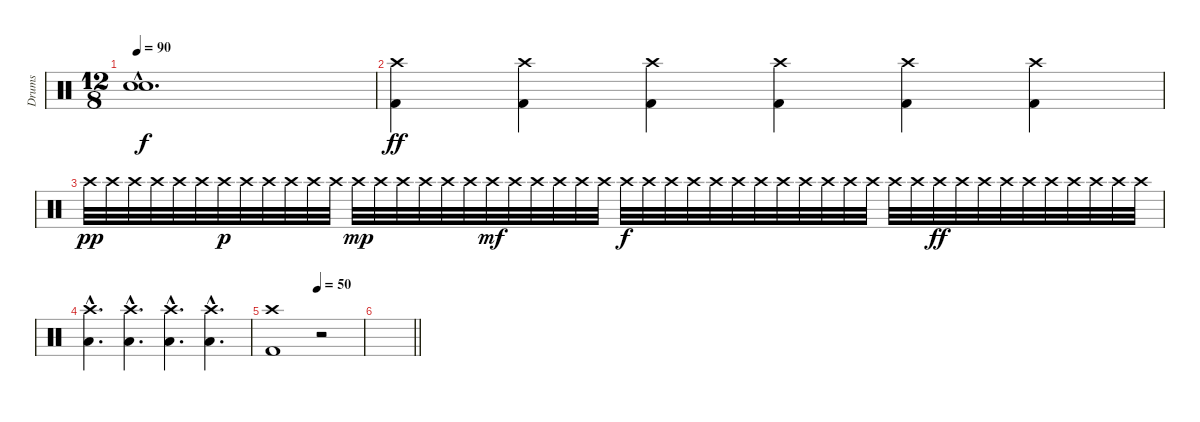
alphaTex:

\track ("Drums" "Drums") {instrument percussion}
\staff {score}
\articulation defaults
\ts (12 8)
\tempo 90
\clef neutral
\ks c
("Snare (hit)"{hac t} "Snare (hit)"{hac t}).1{d dy f} |
("Kick (hit) 2" "Crash high (hit)").4{dy ff} ("Kick (hit) 2" "Crash high (hit)").4 ("Kick (hit) 2" "Crash high (hit)").4 ("Kick (hit) 2" "Crash high (hit)").4 ("Kick (hit) 2" "Crash high (hit)").4 ("Kick (hit) 2" "Crash high (hit)").4 |
"Crash high (hit)".32{dy pp volume 16} "Crash high (hit)".32{volume 16} "Crash high (hit)".32{volume 16} "Crash high (hit)".32{volume 16} "Crash high (hit)".32{volume 16} "Crash high (hit)".32{volume 16} "Crash high (hit)".32{dy p volume 16} "Crash high (hit)".32{volume 16} "Crash high (hit)".32{volume 16} "Crash high (hit)".32{volume 16} "Crash high (hit)".32{volume 16} "Crash high (hit)".32{volume 16} "Crash high (hit)".32{dy mp volume 16} "Crash high (hit)".32{volume 16} "Crash high (hit)".32{volume 16} "Crash high (hit)".32{volume 16} "Crash high (hit)".32{volume 16} "Crash high (hit)".32{volume 16} "Crash high (hit)".32{dy mf volume 16} "Crash high (hit)".32{volume 16} "Crash high (hit)".32{volume 16} "Crash high (hit)".32{volume 16} "Crash high (hit)".32{volume 16} "Crash high (hit)".32{volume 16} "Crash high (hit)".32{dy f volume 16} "Crash high (hit)".32{volume 16} "Crash high (hit)".32{volume 16} "Crash high (hit)".32{volume 16} "Crash high (hit)".32{volume 16} "Crash high (hit)".32{volume 16} "Crash high (hit)".32{volume 16} "Crash high (hit)".32{volume 16} "Crash high (hit)".32{volume 16} "Crash high (hit)".32{volume 16} "Crash high (hit)".32{volume 16} "Crash high (hit)".32{volume 16} "Crash high (hit)".32{volume 16} "Crash high (hit)".32{volume 16} "Crash high (hit)".32{dy ff volume 16} "Crash high (hit)".32{volume 16} "Crash high (hit)".32{volume 16} "Crash high (hit)".32{volume 16} "Crash high (hit)".32{volume 16} "Crash high (hit)".32{volume 16} "Crash high (hit)".32{volume 16} "Crash high (hit)".32{volume 16} "Crash high (hit)".32{volume 16} "Crash high (hit)".32{volume 16} |
("Low Tom (hit)"{hac} "Crash high (hit)"{hac}).4{d} ("Low Tom (hit)"{hac} "Crash high (hit)"{hac}).4{d} ("Low Tom (hit)"{hac} "Crash high (hit)"{hac}).4{d} ("Low Tom (hit)"{hac} "Crash high (hit)"{hac}).4{d} |
\tempo (50 0.5)
("Kick (hit) 2" "Crash high (hit)").1{volume 16} r.2 |
\barLineRight lightlight
